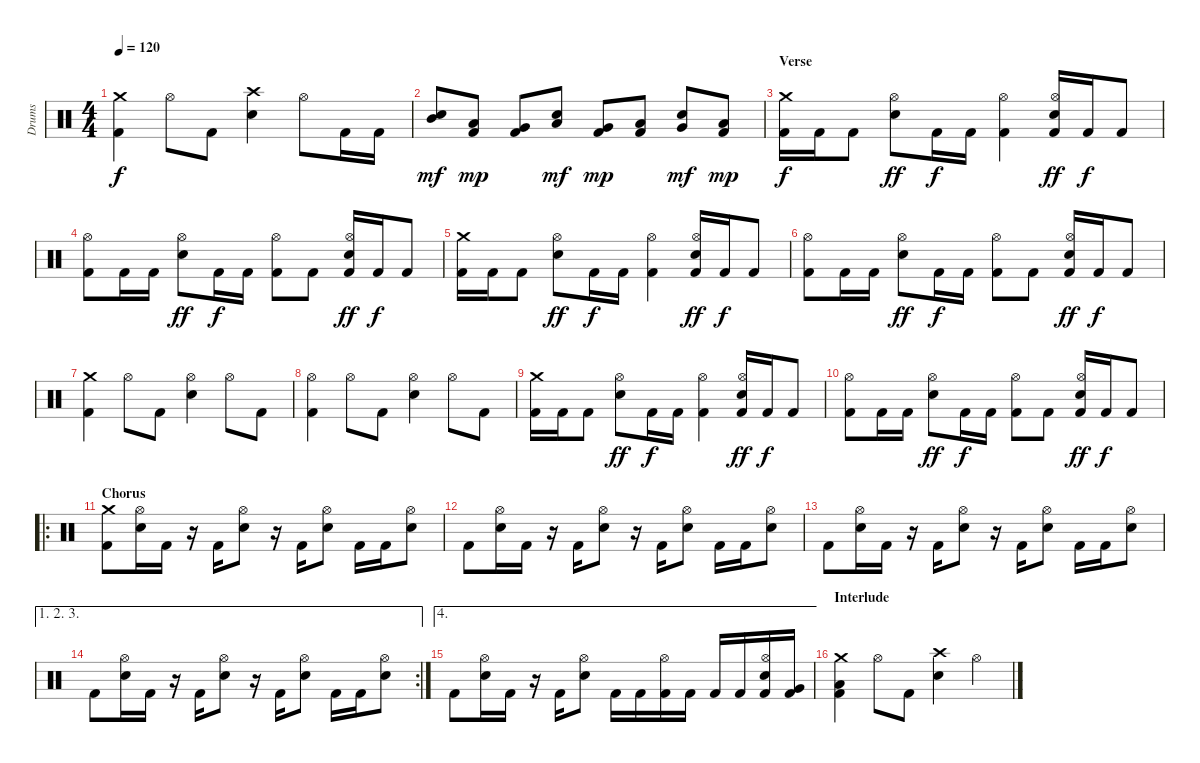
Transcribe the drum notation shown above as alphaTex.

\track ("Drums" "Drums") {instrument percussion}
\staff {score}
\articulation defaults
\ts (4 4)
\tempo 120
\clef neutral
\ks c
("Crash medium (hit)" "Kick (hit) 2").4{dy f} "Hi-Hat (open)".8 "Kick (hit) 2".8 ("Crash high (hit)" "Snare (hit) 2").4 "Hi-Hat (open)".8 "Kick (hit) 2".16 "Kick (hit) 2".16 |
("Mid Tom (hit)" "Snare (hit) 2").8{dy mf} ("Low Tom (hit)" "Kick (hit) 2").8{dy mp} ("Very Low Tom (hit)" "Kick (hit) 2").8 ("Low Tom (hit)" "Snare (hit) 2").8{dy mf} ("Very Low Tom (hit)" "Kick (hit) 2").8{dy mp} ("Low Floor Tom (hit)" "Kick (hit) 2").8 ("Very Low Tom (hit)" "Snare (hit) 2").8{dy mf} ("Low Floor Tom (hit)" "Kick (hit) 2").8{dy mp} |
\section ("" "Verse")
("Crash medium (hit)" "Kick (hit) 2").16{dy f} "Kick (hit) 2".16 "Kick (hit) 2".8 ("Hi-Hat (open)" "Snare (hit) 2").8{dy ff} "Kick (hit) 2".16{dy f} "Kick (hit) 2".16 ("Hi-Hat (open)" "Kick (hit) 2").4 ("Hi-Hat (open)" "Snare (hit) 2" "Kick (hit) 2").16{dy ff} "Kick (hit) 2".16{dy f} "Kick (hit) 2".8 |
("Hi-Hat (open)" "Kick (hit) 2").8 "Kick (hit) 2".16 "Kick (hit) 2".16 ("Hi-Hat (open)" "Snare (hit) 2").8{dy ff} "Kick (hit) 2".16{dy f} "Kick (hit) 2".16 ("Hi-Hat (open)" "Kick (hit) 2").8 "Kick (hit) 2".8 ("Hi-Hat (open)" "Snare (hit) 2" "Kick (hit) 2").16{dy ff} "Kick (hit) 2".16{dy f} "Kick (hit) 2".8 |
("Crash medium (hit)" "Kick (hit) 2").16 "Kick (hit) 2".16 "Kick (hit) 2".8 ("Hi-Hat (open)" "Snare (hit) 2").8{dy ff} "Kick (hit) 2".16{dy f} "Kick (hit) 2".16 ("Hi-Hat (open)" "Kick (hit) 2").4 ("Hi-Hat (open)" "Snare (hit) 2" "Kick (hit) 2").16{dy ff} "Kick (hit) 2".16{dy f} "Kick (hit) 2".8 |
("Hi-Hat (open)" "Kick (hit) 2").8 "Kick (hit) 2".16 "Kick (hit) 2".16 ("Hi-Hat (open)" "Snare (hit) 2").8{dy ff} "Kick (hit) 2".16{dy f} "Kick (hit) 2".16 ("Hi-Hat (open)" "Kick (hit) 2").8 "Kick (hit) 2".8 ("Hi-Hat (open)" "Snare (hit) 2" "Kick (hit) 2").16{dy ff} "Kick (hit) 2".16{dy f} "Kick (hit) 2".8 |
("Crash medium (hit)" "Kick (hit) 2").4 "Hi-Hat (open)".8 "Kick (hit) 2".8 ("Hi-Hat (open)" "Snare (hit) 2").4 "Hi-Hat (open)".8 "Kick (hit) 2".8 |
("Hi-Hat (open)" "Kick (hit) 2").4 "Hi-Hat (open)".8 "Kick (hit) 2".8 ("Hi-Hat (open)" "Snare (hit) 2").4 "Hi-Hat (open)".8 "Kick (hit) 2".8 |
("Crash medium (hit)" "Kick (hit) 2").16 "Kick (hit) 2".16 "Kick (hit) 2".8 ("Hi-Hat (open)" "Snare (hit) 2").8{dy ff} "Kick (hit) 2".16{dy f} "Kick (hit) 2".16 ("Hi-Hat (open)" "Kick (hit) 2").4 ("Hi-Hat (open)" "Snare (hit) 2" "Kick (hit) 2").16{dy ff} "Kick (hit) 2".16{dy f} "Kick (hit) 2".8 |
("Hi-Hat (open)" "Kick (hit) 2").8 "Kick (hit) 2".16 "Kick (hit) 2".16 ("Hi-Hat (open)" "Snare (hit) 2").8{dy ff} "Kick (hit) 2".16{dy f} "Kick (hit) 2".16 ("Hi-Hat (open)" "Kick (hit) 2").8 "Kick (hit) 2".8 ("Hi-Hat (open)" "Snare (hit) 2" "Kick (hit) 2").16{dy ff} "Kick (hit) 2".16{dy f} "Kick (hit) 2".8 |
\ro
\section ("" "Chorus")
("Crash medium (hit)" "Kick (hit) 2").8 ("Hi-Hat (open)" "Snare (hit) 2").16 "Kick (hit) 2".16 r.16 "Kick (hit) 2".16 ("Hi-Hat (open)" "Snare (hit) 2").8 r.16 "Kick (hit) 2".16 ("Hi-Hat (open)" "Snare (hit) 2").8 "Kick (hit) 2".16 "Kick (hit) 2".16 ("Hi-Hat (open)" "Snare (hit) 2").8 |
"Kick (hit) 2".8 ("Hi-Hat (open)" "Snare (hit) 2").16 "Kick (hit) 2".16 r.16 "Kick (hit) 2".16 ("Hi-Hat (open)" "Snare (hit) 2").8 r.16 "Kick (hit) 2".16 ("Hi-Hat (open)" "Snare (hit) 2").8 "Kick (hit) 2".16 "Kick (hit) 2".16 ("Hi-Hat (open)" "Snare (hit) 2").8 |
"Kick (hit) 2".8 ("Hi-Hat (open)" "Snare (hit) 2").16 "Kick (hit) 2".16 r.16 "Kick (hit) 2".16 ("Hi-Hat (open)" "Snare (hit) 2").8 r.16 "Kick (hit) 2".16 ("Hi-Hat (open)" "Snare (hit) 2").8 "Kick (hit) 2".16 "Kick (hit) 2".16 ("Hi-Hat (open)" "Snare (hit) 2").8 |
\ae (1 2 3)
\rc 2 "Kick (hit) 2".8
("Hi-Hat (open)" "Snare (hit) 2").16 "Kick (hit) 2".16 r.16 "Kick (hit) 2".16 ("Hi-Hat (open)" "Snare (hit) 2").8 r.16 "Kick (hit) 2".16 ("Hi-Hat (open)" "Snare (hit) 2").8 "Kick (hit) 2".16 "Kick (hit) 2".16 ("Hi-Hat (open)" "Snare (hit) 2").8 |
\ae 4 "Kick (hit) 2".8
("Hi-Hat (open)" "Snare (hit) 2").16 "Kick (hit) 2".16 r.16 "Kick (hit) 2".16 ("Hi-Hat (open)" "Snare (hit) 2").8 "Kick (hit) 2".16 "Kick (hit) 2".16 ("Hi-Hat (open)" "Kick (hit) 2").16 "Kick (hit) 2".16 "Kick (hit) 2".16 "Kick (hit) 2".16 ("Hi-Hat (open)" "Snare (hit) 2" "Kick (hit) 2").16 ("Very Low Tom (hit)" "Kick (hit) 2").16 |
\section ("" "Interlude")
("Crash medium (hit)" "Low Floor Tom (hit)" "Kick (hit) 2").4 "Hi-Hat (open)".8 "Kick (hit) 2".8 ("Crash high (hit)" "Snare (hit) 2").4 "Hi-Hat (open)".4
